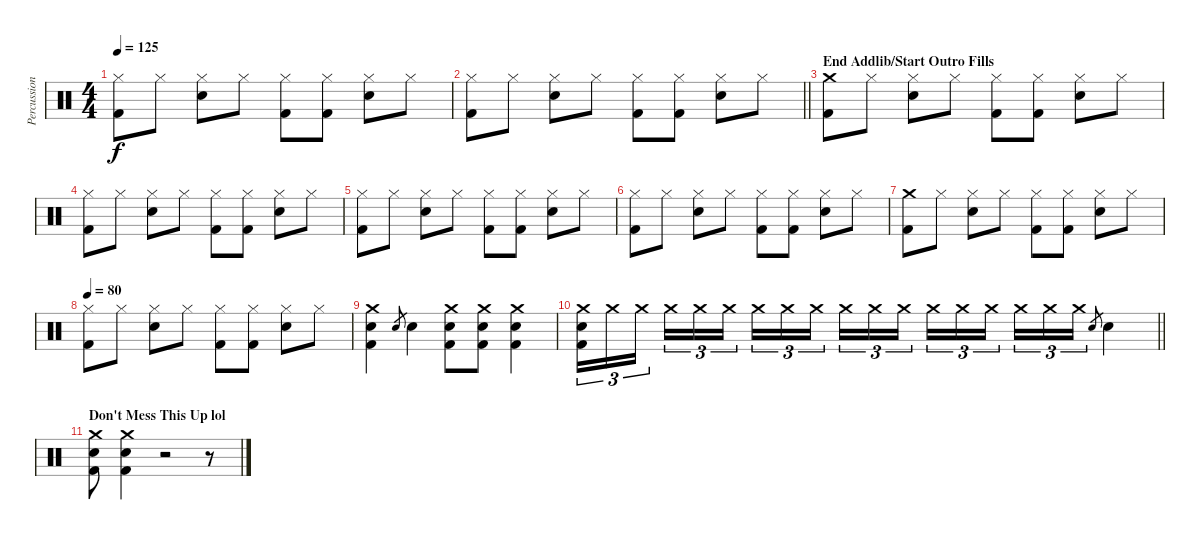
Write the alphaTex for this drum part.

\track ("Percussion" "Percussion") {instrument percussion}
\staff {score}
\articulation defaults
\ts (4 4)
\tempo 125
\clef neutral
\ks c
("Hi-Hat (closed)" "Kick (hit) 2").8{dy f} "Hi-Hat (closed)".8 ("Hi-Hat (closed)" "Snare (hit) 2").8 "Hi-Hat (closed)".8 ("Hi-Hat (closed)" "Kick (hit) 2").8 ("Hi-Hat (closed)" "Kick (hit) 2").8 ("Hi-Hat (closed)" "Snare (hit) 2").8 "Hi-Hat (closed)".8 |
\barLineRight lightlight
("Hi-Hat (closed)" "Kick (hit) 2").8 "Hi-Hat (closed)".8 ("Hi-Hat (closed)" "Snare (hit) 2").8 "Hi-Hat (closed)".8 ("Hi-Hat (closed)" "Kick (hit) 2").8 ("Hi-Hat (closed)" "Kick (hit) 2").8 ("Hi-Hat (closed)" "Snare (hit) 2").8 "Hi-Hat (closed)".8 |
\section ("" "End Addlib/Start Outro Fills")
("Crash medium (hit)" "Kick (hit) 2").8 "Hi-Hat (closed)".8 ("Hi-Hat (closed)" "Snare (hit) 2").8 "Hi-Hat (closed)".8 ("Hi-Hat (closed)" "Kick (hit) 2").8 ("Hi-Hat (closed)" "Kick (hit) 2").8 ("Hi-Hat (closed)" "Snare (hit) 2").8 "Hi-Hat (closed)".8 |
("Hi-Hat (closed)" "Kick (hit) 2").8 "Hi-Hat (closed)".8 ("Hi-Hat (closed)" "Snare (hit) 2").8 "Hi-Hat (closed)".8 ("Hi-Hat (closed)" "Kick (hit) 2").8 ("Hi-Hat (closed)" "Kick (hit) 2").8 ("Hi-Hat (closed)" "Snare (hit) 2").8 "Hi-Hat (closed)".8 |
("Hi-Hat (closed)" "Kick (hit) 2").8 "Hi-Hat (closed)".8 ("Hi-Hat (closed)" "Snare (hit) 2").8 "Hi-Hat (closed)".8 ("Hi-Hat (closed)" "Kick (hit) 2").8 ("Hi-Hat (closed)" "Kick (hit) 2").8 ("Hi-Hat (closed)" "Snare (hit) 2").8 "Hi-Hat (closed)".8 |
("Hi-Hat (closed)" "Kick (hit) 2").8 "Hi-Hat (closed)".8 ("Hi-Hat (closed)" "Snare (hit) 2").8 "Hi-Hat (closed)".8 ("Hi-Hat (closed)" "Kick (hit) 2").8 ("Hi-Hat (closed)" "Kick (hit) 2").8 ("Hi-Hat (closed)" "Snare (hit) 2").8 "Hi-Hat (closed)".8 |
("Crash medium (hit)" "Kick (hit) 2").8 "Hi-Hat (closed)".8 ("Hi-Hat (closed)" "Snare (hit) 2").8 "Hi-Hat (closed)".8 ("Hi-Hat (closed)" "Kick (hit) 2").8 ("Hi-Hat (closed)" "Kick (hit) 2").8 ("Hi-Hat (closed)" "Snare (hit) 2").8 "Hi-Hat (closed)".8 |
\tempo 80
("Hi-Hat (closed)" "Kick (hit) 2").8 "Hi-Hat (closed)".8 ("Hi-Hat (closed)" "Snare (hit) 2").8 "Hi-Hat (closed)".8 ("Hi-Hat (closed)" "Kick (hit) 2").8 ("Hi-Hat (closed)" "Kick (hit) 2").8 ("Hi-Hat (closed)" "Snare (hit) 2").8 "Hi-Hat (closed)".8 |
("Crash medium (hit)" "Snare (hit) 2" "Kick (hit) 2").4 "Snare (hit) 2".8{gr} "Snare (hit) 2".4 ("Crash medium (hit)" "Snare (hit) 2" "Kick (hit) 2").8 ("Crash medium (hit)" "Snare (hit) 2" "Kick (hit) 2").8 ("Crash medium (hit)" "Snare (hit) 2" "Kick (hit) 2").4 |
\barLineRight lightlight
("Crash medium (hit)" "Snare (hit) 2" "Kick (hit) 2").16{tu (3 2)} "Crash medium (hit)".16{tu (3 2)} "Crash medium (hit)".16{tu (3 2)} "Crash medium (hit)".16{tu (3 2)} "Crash medium (hit)".16{tu (3 2)} "Crash medium (hit)".16{tu (3 2)} "Crash medium (hit)".16{tu (3 2)} "Crash medium (hit)".16{tu (3 2)} "Crash medium (hit)".16{tu (3 2)} "Crash medium (hit)".16{tu (3 2)} "Crash medium (hit)".16{tu (3 2)} "Crash medium (hit)".16{tu (3 2)} "Crash medium (hit)".16{tu (3 2)} "Crash medium (hit)".16{tu (3 2)} "Crash medium (hit)".16{tu (3 2)} "Crash medium (hit)".16{tu (3 2)} "Crash medium (hit)".16{tu (3 2)} "Crash medium (hit)".16{tu (3 2)} "Snare (hit) 2".8{gr} "Snare (hit) 2".4 |
\section ("" "Don't Mess This Up lol")
("Crash medium (hit)" "Snare (hit) 2" "Kick (hit) 2").8 ("Crash medium (hit)" "Snare (hit) 2" "Kick (hit) 2").4 r.2 r.8
